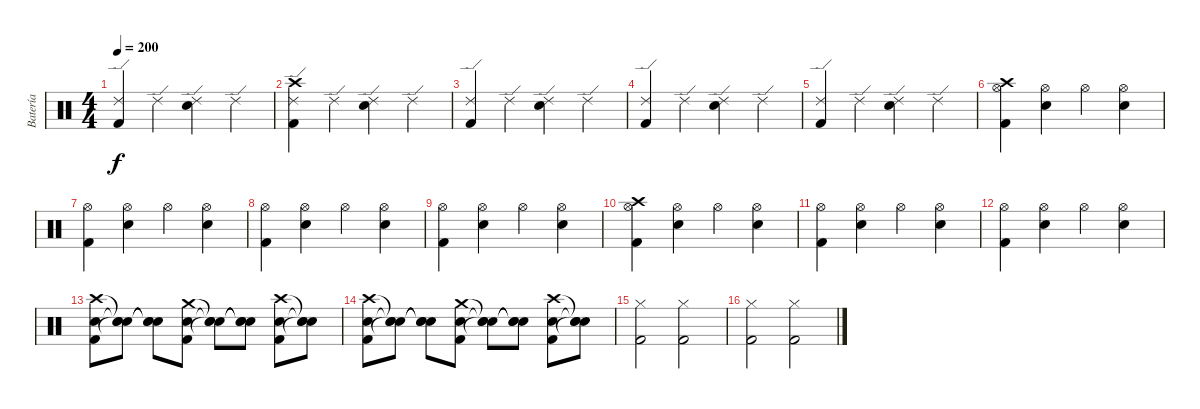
\track ("Batería" "Batería") {instrument percussion}
\staff {score}
\articulation defaults
\ts (4 4)
\tempo 200
\clef neutral
\ks c
("Ride (edge) 2" "Kick (hit) 2").4{dy f} "Ride (edge) 2".4 ("Ride (edge) 2" "Electric Snare (hit)").4 "Ride (edge) 2".4 |
("Ride (edge) 2" "Kick (hit) 2" "Crash high (hit)").4 "Ride (edge) 2".4 ("Ride (edge) 2" "Electric Snare (hit)").4 "Ride (edge) 2".4 |
("Ride (edge) 2" "Kick (hit) 2").4 "Ride (edge) 2".4 ("Ride (edge) 2" "Electric Snare (hit)").4 "Ride (edge) 2".4 |
("Ride (edge) 2" "Kick (hit) 2").4 "Ride (edge) 2".4 ("Ride (edge) 2" "Electric Snare (hit)").4 "Ride (edge) 2".4 |
("Ride (edge) 2" "Kick (hit) 2").4 "Ride (edge) 2".4 ("Ride (edge) 2" "Electric Snare (hit)").4 "Ride (edge) 2".4 |
("Hi-Hat (open)" "Kick (hit) 2" "Crash high (hit)").4 ("Hi-Hat (open)" "Electric Snare (hit)").4 "Hi-Hat (open)".4 ("Hi-Hat (open)" "Electric Snare (hit)").4 |
("Hi-Hat (open)" "Kick (hit) 2").4 ("Hi-Hat (open)" "Electric Snare (hit)").4 "Hi-Hat (open)".4 ("Hi-Hat (open)" "Electric Snare (hit)").4 |
("Hi-Hat (open)" "Kick (hit) 2").4 ("Hi-Hat (open)" "Electric Snare (hit)").4 "Hi-Hat (open)".4 ("Hi-Hat (open)" "Electric Snare (hit)").4 |
("Hi-Hat (open)" "Kick (hit) 2").4 ("Hi-Hat (open)" "Electric Snare (hit)").4 "Hi-Hat (open)".4 ("Hi-Hat (open)" "Electric Snare (hit)").4 |
("Hi-Hat (open)" "Kick (hit) 2" "Crash high (hit)").4 ("Hi-Hat (open)" "Electric Snare (hit)").4 "Hi-Hat (open)".4 ("Hi-Hat (open)" "Electric Snare (hit)").4 |
("Hi-Hat (open)" "Kick (hit) 2").4 ("Hi-Hat (open)" "Electric Snare (hit)").4 "Hi-Hat (open)".4 ("Hi-Hat (open)" "Electric Snare (hit)").4 |
("Hi-Hat (open)" "Kick (hit) 2").4 ("Hi-Hat (open)" "Electric Snare (hit)").4 "Hi-Hat (open)".4 ("Hi-Hat (open)" "Electric Snare (hit)").4 |
("Electric Snare (hit)" "Kick (hit) 2" "Crash high (hit)").8 ("Snare (hit)"{t} "Snare (hit)"{t} "Snare (hit)"{t}).8 ("Snare (hit)"{t} "Snare (hit)"{t} "Snare (hit)"{t}).8 ("Electric Snare (hit)" "Kick (hit) 2" "Crash medium (hit)").8 ("Snare (hit)"{t} "Snare (hit)"{t} "Snare (hit)"{t}).8 ("Snare (hit)"{t} "Snare (hit)"{t} "Snare (hit)"{t}).8 ("Electric Snare (hit)" "Kick (hit) 2" "Crash high (hit)").8 ("Snare (hit)"{t} "Snare (hit)"{t} "Snare (hit)"{t}).8 |
("Electric Snare (hit)" "Kick (hit) 2" "Crash high (hit)").8 ("Snare (hit)"{t} "Snare (hit)"{t} "Snare (hit)"{t}).8 ("Snare (hit)"{t} "Snare (hit)"{t} "Snare (hit)"{t}).8 ("Electric Snare (hit)" "Kick (hit) 2" "Crash medium (hit)").8 ("Snare (hit)"{t} "Snare (hit)"{t} "Snare (hit)"{t}).8 ("Snare (hit)"{t} "Snare (hit)"{t} "Snare (hit)"{t}).8 ("Electric Snare (hit)" "Kick (hit) 2" "Crash high (hit)").8 ("Snare (hit)"{t} "Snare (hit)"{t} "Snare (hit)"{t}).8 |
("Kick (hit) 2" "Hi-Hat (closed)").2 ("Kick (hit) 2" "Hi-Hat (closed)").2 |
("Kick (hit) 2" "Hi-Hat (closed)").2 ("Kick (hit) 2" "Hi-Hat (closed)").2
